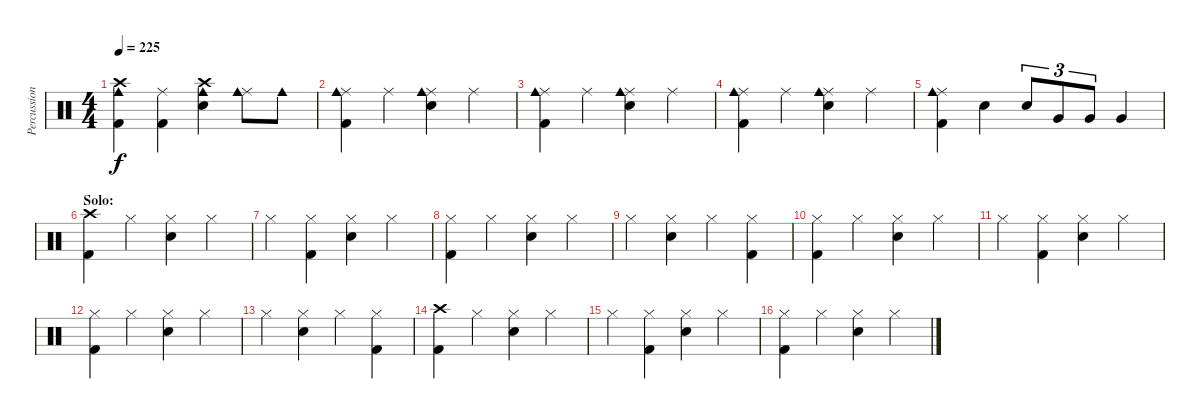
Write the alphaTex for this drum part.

\track ("Percussion" "Percussion") {instrument percussion}
\staff {score}
\articulation defaults
\ts (4 4)
\tempo 225
\clef neutral
\ks c
("Crash high (hit)" "Cowbell medium (hit)" "Kick (hit) 2").4{dy f} ("Ride (middle)" "Kick (hit) 2").4 ("Crash high (hit)" "Cowbell medium (hit)" "Electric Snare (hit)").4 ("Ride (middle)" "Cowbell medium (hit)").8 "Cowbell medium (hit)".8 |
("Ride (middle)" "Cowbell medium (hit)" "Kick (hit) 2").4 "Ride (middle)".4 ("Ride (middle)" "Cowbell medium (hit)" "Electric Snare (hit)").4 "Ride (middle)".4 |
("Ride (middle)" "Cowbell medium (hit)" "Kick (hit) 2").4 "Ride (middle)".4 ("Ride (middle)" "Cowbell medium (hit)" "Electric Snare (hit)").4 "Ride (middle)".4 |
("Ride (middle)" "Cowbell medium (hit)" "Kick (hit) 2").4 "Ride (middle)".4 ("Ride (middle)" "Cowbell medium (hit)" "Electric Snare (hit)").4 "Ride (middle)".4 |
("Ride (middle)" "Cowbell medium (hit)" "Kick (hit) 2").4 "Electric Snare (hit)".4 "Electric Snare (hit)".8{tu (3 2)} "Very Low Tom (hit)".8{tu (3 2)} "Very Low Tom (hit)".8{tu (3 2)} "Very Low Tom (hit)".4 |
\section ("" "Solo:")
("Crash high (hit)" "Kick (hit) 2").4 "Hi-Hat (closed)".4 ("Hi-Hat (closed)" "Electric Snare (hit)").4 "Hi-Hat (closed)".4 |
"Hi-Hat (closed)".4 ("Hi-Hat (closed)" "Kick (hit) 2").4 ("Hi-Hat (closed)" "Electric Snare (hit)").4 "Hi-Hat (closed)".4 |
("Hi-Hat (closed)" "Kick (hit) 2").4 "Hi-Hat (closed)".4 ("Hi-Hat (closed)" "Electric Snare (hit)").4 "Hi-Hat (closed)".4 |
"Hi-Hat (closed)".4 ("Hi-Hat (closed)" "Electric Snare (hit)").4 "Hi-Hat (closed)".4 ("Hi-Hat (closed)" "Kick (hit) 2").4 |
("Hi-Hat (closed)" "Kick (hit) 2").4 "Hi-Hat (closed)".4 ("Hi-Hat (closed)" "Electric Snare (hit)").4 "Hi-Hat (closed)".4 |
"Hi-Hat (closed)".4 ("Hi-Hat (closed)" "Kick (hit) 2").4 ("Hi-Hat (closed)" "Electric Snare (hit)").4 "Hi-Hat (closed)".4 |
("Hi-Hat (closed)" "Kick (hit) 2").4 "Hi-Hat (closed)".4 ("Hi-Hat (closed)" "Electric Snare (hit)").4 "Hi-Hat (closed)".4 |
"Hi-Hat (closed)".4 ("Hi-Hat (closed)" "Electric Snare (hit)").4 "Hi-Hat (closed)".4 ("Hi-Hat (closed)" "Kick (hit) 2").4 |
("Crash high (hit)" "Kick (hit) 2").4 "Hi-Hat (closed)".4 ("Hi-Hat (closed)" "Electric Snare (hit)").4 "Hi-Hat (closed)".4 |
"Hi-Hat (closed)".4 ("Hi-Hat (closed)" "Kick (hit) 2").4 ("Hi-Hat (closed)" "Electric Snare (hit)").4 "Hi-Hat (closed)".4 |
("Hi-Hat (closed)" "Kick (hit) 2").4 "Hi-Hat (closed)".4 ("Hi-Hat (closed)" "Electric Snare (hit)").4 "Hi-Hat (closed)".4
